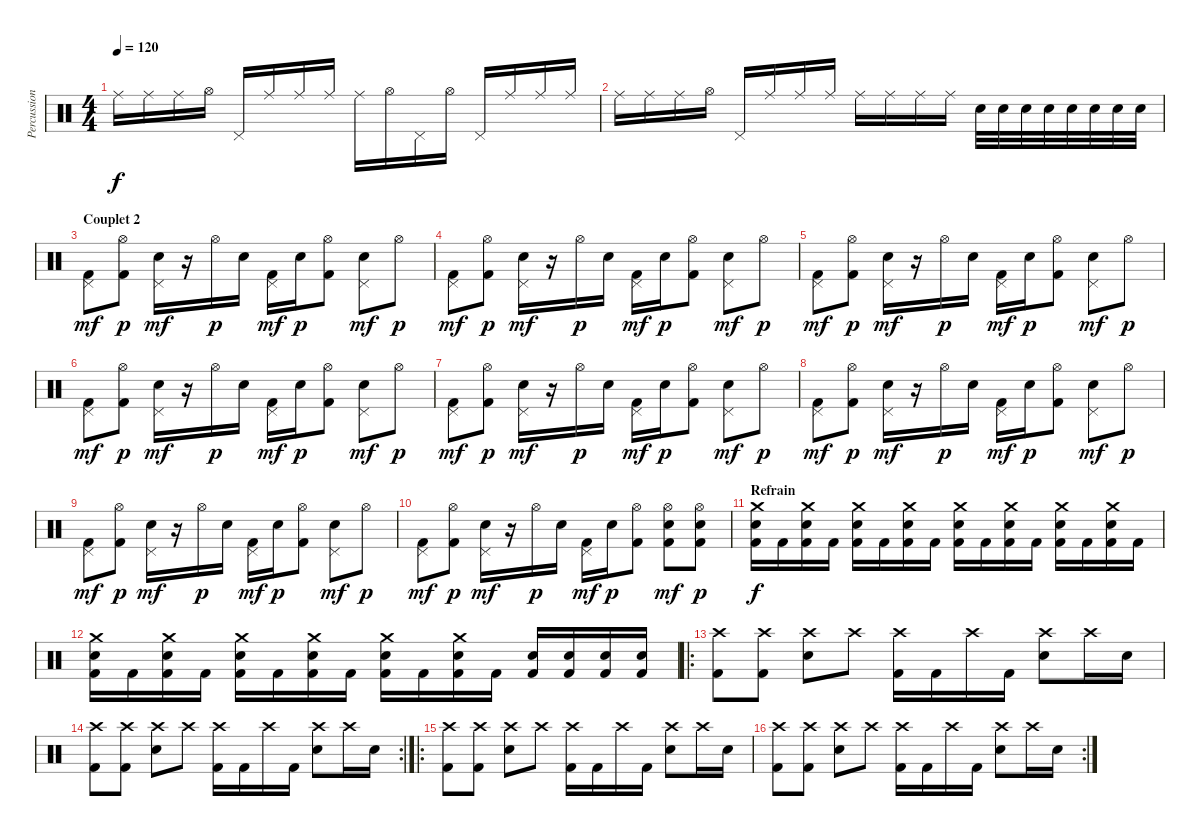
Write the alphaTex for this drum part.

\track ("Percussions" "Percussion") {instrument percussion}
\staff {score}
\articulation defaults
\ts (4 4)
\tempo 120
\clef neutral
\ks c "Ride (middle)".16{dy f} "Ride (middle)".16 "Ride (middle)".16 "Hi-Hat (open)".16 "Pedal Hi-Hat (hit)".16 "Ride (middle)".16 "Ride (middle)".16 "Ride (middle)".16 "Ride (middle)".16 "Hi-Hat (open)".16 "Pedal Hi-Hat (hit)".16 "Hi-Hat (open)".16 "Pedal Hi-Hat (hit)".16 "Ride (middle)".16 "Ride (middle)".16 "Ride (middle)".16
|
"Ride (middle)".16 "Ride (middle)".16 "Ride (middle)".16 "Hi-Hat (open)".16 "Pedal Hi-Hat (hit)".16 "Ride (middle)".16 "Ride (middle)".16 "Ride (middle)".16 "Ride (middle)".16 "Ride (middle)".16 "Ride (middle)".16 "Ride (middle)".16 "Electric Snare (hit)".32 "Electric Snare (hit)".32 "Electric Snare (hit)".32 "Electric Snare (hit)".32 "Electric Snare (hit)".32 "Electric Snare (hit)".32 "Electric Snare (hit)".32 "Electric Snare (hit)".32 |
\section ("" "Couplet 2")
("Pedal Hi-Hat (hit)" "Kick (hit) 2").8{dy mf} ("Hi-Hat (open)" "Kick (hit) 2").8{dy p} ("Pedal Hi-Hat (hit)" "Electric Snare (hit)").16{dy mf} r.16 "Hi-Hat (open)".16{dy p} "Electric Snare (hit)".16 ("Pedal Hi-Hat (hit)" "Kick (hit) 2").16{dy mf} "Electric Snare (hit)".16{dy p} ("Hi-Hat (open)" "Kick (hit) 2").8 ("Pedal Hi-Hat (hit)" "Electric Snare (hit)").8{dy mf} "Hi-Hat (open)".8{dy p} |
("Pedal Hi-Hat (hit)" "Kick (hit) 2").8{dy mf} ("Hi-Hat (open)" "Kick (hit) 2").8{dy p} ("Pedal Hi-Hat (hit)" "Electric Snare (hit)").16{dy mf} r.16 "Hi-Hat (open)".16{dy p} "Electric Snare (hit)".16 ("Pedal Hi-Hat (hit)" "Kick (hit) 2").16{dy mf} "Electric Snare (hit)".16{dy p} ("Hi-Hat (open)" "Kick (hit) 2").8 ("Pedal Hi-Hat (hit)" "Electric Snare (hit)").8{dy mf} "Hi-Hat (open)".8{dy p} |
("Pedal Hi-Hat (hit)" "Kick (hit) 2").8{dy mf} ("Hi-Hat (open)" "Kick (hit) 2").8{dy p} ("Pedal Hi-Hat (hit)" "Electric Snare (hit)").16{dy mf} r.16 "Hi-Hat (open)".16{dy p} "Electric Snare (hit)".16 ("Pedal Hi-Hat (hit)" "Kick (hit) 2").16{dy mf} "Electric Snare (hit)".16{dy p} ("Hi-Hat (open)" "Kick (hit) 2").8 ("Pedal Hi-Hat (hit)" "Electric Snare (hit)").8{dy mf} "Hi-Hat (open)".8{dy p} |
("Pedal Hi-Hat (hit)" "Kick (hit) 2").8{dy mf} ("Hi-Hat (open)" "Kick (hit) 2").8{dy p} ("Pedal Hi-Hat (hit)" "Electric Snare (hit)").16{dy mf} r.16 "Hi-Hat (open)".16{dy p} "Electric Snare (hit)".16 ("Pedal Hi-Hat (hit)" "Kick (hit) 2").16{dy mf} "Electric Snare (hit)".16{dy p} ("Hi-Hat (open)" "Kick (hit) 2").8 ("Pedal Hi-Hat (hit)" "Electric Snare (hit)").8{dy mf} "Hi-Hat (open)".8{dy p} |
("Pedal Hi-Hat (hit)" "Kick (hit) 2").8{dy mf} ("Hi-Hat (open)" "Kick (hit) 2").8{dy p} ("Pedal Hi-Hat (hit)" "Electric Snare (hit)").16{dy mf} r.16 "Hi-Hat (open)".16{dy p} "Electric Snare (hit)".16 ("Pedal Hi-Hat (hit)" "Kick (hit) 2").16{dy mf} "Electric Snare (hit)".16{dy p} ("Hi-Hat (open)" "Kick (hit) 2").8 ("Pedal Hi-Hat (hit)" "Electric Snare (hit)").8{dy mf} "Hi-Hat (open)".8{dy p} |
("Pedal Hi-Hat (hit)" "Kick (hit) 2").8{dy mf} ("Hi-Hat (open)" "Kick (hit) 2").8{dy p} ("Pedal Hi-Hat (hit)" "Electric Snare (hit)").16{dy mf} r.16 "Hi-Hat (open)".16{dy p} "Electric Snare (hit)".16 ("Pedal Hi-Hat (hit)" "Kick (hit) 2").16{dy mf} "Electric Snare (hit)".16{dy p} ("Hi-Hat (open)" "Kick (hit) 2").8 ("Pedal Hi-Hat (hit)" "Electric Snare (hit)").8{dy mf} "Hi-Hat (open)".8{dy p} |
("Pedal Hi-Hat (hit)" "Kick (hit) 2").8{dy mf} ("Hi-Hat (open)" "Kick (hit) 2").8{dy p} ("Pedal Hi-Hat (hit)" "Electric Snare (hit)").16{dy mf} r.16 "Hi-Hat (open)".16{dy p} "Electric Snare (hit)".16 ("Pedal Hi-Hat (hit)" "Kick (hit) 2").16{dy mf} "Electric Snare (hit)".16{dy p} ("Hi-Hat (open)" "Kick (hit) 2").8 ("Pedal Hi-Hat (hit)" "Electric Snare (hit)").8{dy mf} "Hi-Hat (open)".8{dy p} |
("Pedal Hi-Hat (hit)" "Kick (hit) 2").8{dy mf} ("Hi-Hat (open)" "Kick (hit) 2").8{dy p} ("Pedal Hi-Hat (hit)" "Electric Snare (hit)").16{dy mf} r.16 "Hi-Hat (open)".16{dy p} "Electric Snare (hit)".16 ("Pedal Hi-Hat (hit)" "Kick (hit) 2").16{dy mf} "Electric Snare (hit)".16{dy p} ("Hi-Hat (open)" "Kick (hit) 2").8 ("Hi-Hat (open)" "Electric Snare (hit)" "Kick (hit) 2").8{dy mf} ("Hi-Hat (open)" "Electric Snare (hit)" "Kick (hit) 2").8{dy p} |
\section ("" "Refrain")
("Crash medium (hit)" "Electric Snare (hit)" "Kick (hit) 2").16{dy f} "Kick (hit) 2".16 ("Crash medium (hit)" "Electric Snare (hit)" "Kick (hit) 2").16 "Kick (hit) 2".16 ("Crash medium (hit)" "Electric Snare (hit)" "Kick (hit) 2").16 "Kick (hit) 2".16 ("Crash medium (hit)" "Electric Snare (hit)" "Kick (hit) 2").16 "Kick (hit) 2".16 ("Crash medium (hit)" "Electric Snare (hit)" "Kick (hit) 2").16 "Kick (hit) 2".16 ("Crash medium (hit)" "Electric Snare (hit)" "Kick (hit) 2").16 "Kick (hit) 2".16 ("Crash medium (hit)" "Electric Snare (hit)" "Kick (hit) 2").16 "Kick (hit) 2".16 ("Crash medium (hit)" "Electric Snare (hit)" "Kick (hit) 2").16 "Kick (hit) 2".16 |
("Crash medium (hit)" "Electric Snare (hit)" "Kick (hit) 2").16 "Kick (hit) 2".16 ("Crash medium (hit)" "Electric Snare (hit)" "Kick (hit) 2").16 "Kick (hit) 2".16 ("Crash medium (hit)" "Electric Snare (hit)" "Kick (hit) 2").16 "Kick (hit) 2".16 ("Crash medium (hit)" "Electric Snare (hit)" "Kick (hit) 2").16 "Kick (hit) 2".16 ("Crash medium (hit)" "Electric Snare (hit)" "Kick (hit) 2").16 "Kick (hit) 2".16 ("Crash medium (hit)" "Electric Snare (hit)" "Kick (hit) 2").16 "Kick (hit) 2".16 ("Electric Snare (hit)" "Kick (hit) 2").16 ("Electric Snare (hit)" "Kick (hit) 2").16 ("Electric Snare (hit)" "Kick (hit) 2").16 ("Electric Snare (hit)" "Kick (hit) 2").16 |
\ro
("Crash high (hit)" "Kick (hit) 2").8 ("Crash high (hit)" "Kick (hit) 2").8 ("Crash high (hit)" "Electric Snare (hit)").8 "Crash high (hit)".8 ("Crash high (hit)" "Kick (hit) 2").16 "Kick (hit) 2".16 "Crash high (hit)".16 "Kick (hit) 2".16 ("Crash high (hit)" "Electric Snare (hit)").8 "Crash high (hit)".16 "Electric Snare (hit)".16 |
\rc 2
("Crash high (hit)" "Kick (hit) 2").8 ("Crash high (hit)" "Kick (hit) 2").8 ("Crash high (hit)" "Electric Snare (hit)").8 "Crash high (hit)".8 ("Crash high (hit)" "Kick (hit) 2").16 "Kick (hit) 2".16 "Crash high (hit)".16 "Kick (hit) 2".16 ("Crash high (hit)" "Electric Snare (hit)").8 "Crash high (hit)".16 "Electric Snare (hit)".16 |
\ro
("Crash high (hit)" "Kick (hit) 2").8 ("Crash high (hit)" "Kick (hit) 2").8 ("Crash high (hit)" "Electric Snare (hit)").8 "Crash high (hit)".8 ("Crash high (hit)" "Kick (hit) 2").16 "Kick (hit) 2".16 "Crash high (hit)".16 "Kick (hit) 2".16 ("Crash high (hit)" "Electric Snare (hit)").8 "Crash high (hit)".16 "Electric Snare (hit)".16 |
\rc 2
("Crash high (hit)" "Kick (hit) 2").8 ("Crash high (hit)" "Kick (hit) 2").8 ("Crash high (hit)" "Electric Snare (hit)").8 "Crash high (hit)".8 ("Crash high (hit)" "Kick (hit) 2").16 "Kick (hit) 2".16 "Crash high (hit)".16 "Kick (hit) 2".16 ("Crash high (hit)" "Electric Snare (hit)").8 "Crash high (hit)".16 "Electric Snare (hit)".16
